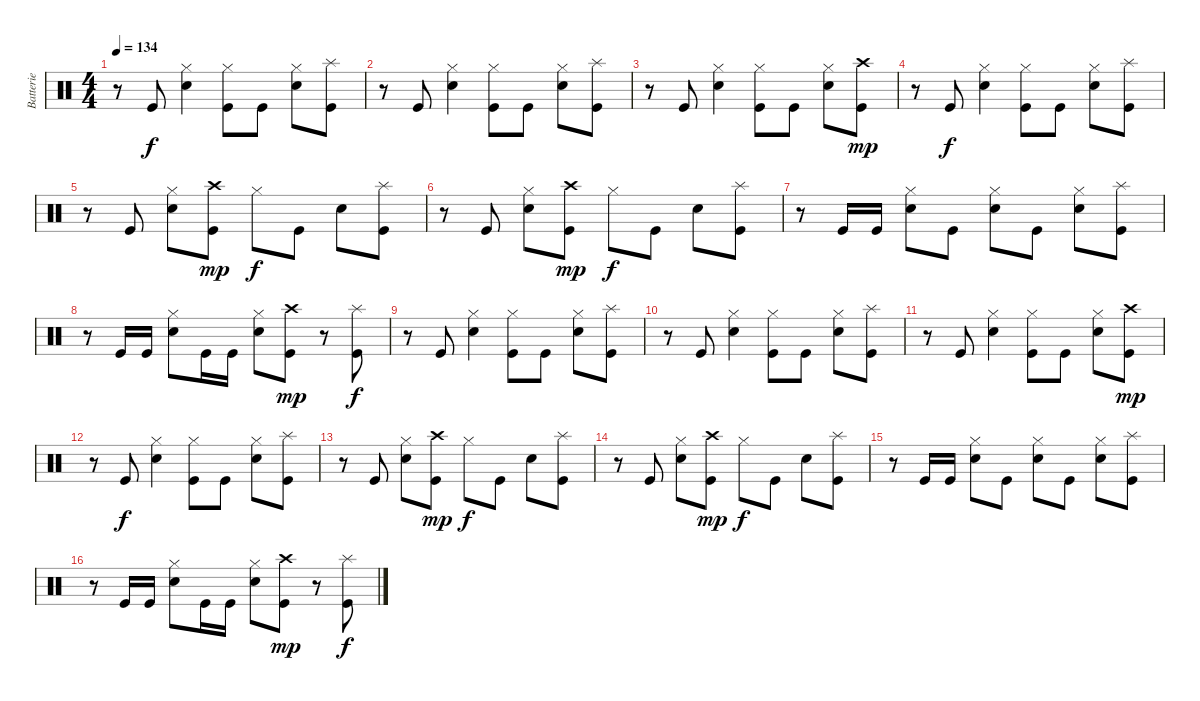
\track ("Batterie" "Batterie") {instrument percussion}
\staff {score}
\articulation defaults
\ts (4 4)
\tempo 134
\clef neutral
\ks c
r.8{dy f} "Kick (hit)".8 ("Hi-Hat (closed)" "Snare (hit) 2").4 ("Hi-Hat (closed)" "Kick (hit)").8 "Kick (hit)".8 ("Hi-Hat (closed)" "Snare (hit) 2").8 ("Splash (hit)" "Kick (hit)").8 |
r.8 "Kick (hit)".8 ("Hi-Hat (closed)" "Snare (hit) 2").4 ("Hi-Hat (closed)" "Kick (hit)").8 "Kick (hit)".8 ("Hi-Hat (closed)" "Snare (hit) 2").8 ("Splash (hit)" "Kick (hit)").8 |
r.8 "Kick (hit)".8 ("Hi-Hat (closed)" "Snare (hit) 2").4 ("Hi-Hat (closed)" "Kick (hit)").8 "Kick (hit)".8 ("Hi-Hat (closed)" "Snare (hit) 2").8 ("Crash high (hit)" "Kick (hit)").8{dy mp} |
r.8 "Kick (hit)".8{dy f} ("Hi-Hat (closed)" "Snare (hit) 2").4 ("Hi-Hat (closed)" "Kick (hit)").8 "Kick (hit)".8 ("Hi-Hat (closed)" "Snare (hit) 2").8 ("Splash (hit)" "Kick (hit)").8 |
r.8 "Kick (hit)".8 ("Hi-Hat (closed)" "Snare (hit) 2").8 ("Crash high (hit)" "Kick (hit)").8{dy mp} "Hi-Hat (closed)".8{dy f} "Kick (hit)".8 "Snare (hit) 2".8 ("Splash (hit)" "Kick (hit)").8 |
r.8 "Kick (hit)".8 ("Hi-Hat (closed)" "Snare (hit) 2").8 ("Crash high (hit)" "Kick (hit)").8{dy mp} "Hi-Hat (closed)".8{dy f} "Kick (hit)".8 "Snare (hit) 2".8 ("Splash (hit)" "Kick (hit)").8 |
r.8 "Kick (hit)".16 "Kick (hit)".16 ("Hi-Hat (closed)" "Snare (hit) 2").8 "Kick (hit)".8 ("Hi-Hat (closed)" "Snare (hit) 2").8 "Kick (hit)".8 ("Hi-Hat (closed)" "Snare (hit) 2").8 ("Splash (hit)" "Kick (hit)").8 |
r.8 "Kick (hit)".16 "Kick (hit)".16 ("Hi-Hat (closed)" "Snare (hit) 2").8 "Kick (hit)".16 "Kick (hit)".16 ("Hi-Hat (closed)" "Snare (hit) 2").8 ("Crash high (hit)" "Kick (hit)").8{dy mp} r.8 ("Splash (hit)" "Kick (hit)").8{dy f} |
r.8 "Kick (hit)".8 ("Hi-Hat (closed)" "Snare (hit) 2").4 ("Hi-Hat (closed)" "Kick (hit)").8 "Kick (hit)".8 ("Hi-Hat (closed)" "Snare (hit) 2").8 ("Splash (hit)" "Kick (hit)").8 |
r.8 "Kick (hit)".8 ("Hi-Hat (closed)" "Snare (hit) 2").4 ("Hi-Hat (closed)" "Kick (hit)").8 "Kick (hit)".8 ("Hi-Hat (closed)" "Snare (hit) 2").8 ("Splash (hit)" "Kick (hit)").8 |
r.8 "Kick (hit)".8 ("Hi-Hat (closed)" "Snare (hit) 2").4 ("Hi-Hat (closed)" "Kick (hit)").8 "Kick (hit)".8 ("Hi-Hat (closed)" "Snare (hit) 2").8 ("Crash high (hit)" "Kick (hit)").8{dy mp} |
r.8 "Kick (hit)".8{dy f} ("Hi-Hat (closed)" "Snare (hit) 2").4 ("Hi-Hat (closed)" "Kick (hit)").8 "Kick (hit)".8 ("Hi-Hat (closed)" "Snare (hit) 2").8 ("Splash (hit)" "Kick (hit)").8 |
r.8 "Kick (hit)".8 ("Hi-Hat (closed)" "Snare (hit) 2").8 ("Crash high (hit)" "Kick (hit)").8{dy mp} "Hi-Hat (closed)".8{dy f} "Kick (hit)".8 "Snare (hit) 2".8 ("Splash (hit)" "Kick (hit)").8 |
r.8 "Kick (hit)".8 ("Hi-Hat (closed)" "Snare (hit) 2").8 ("Crash high (hit)" "Kick (hit)").8{dy mp} "Hi-Hat (closed)".8{dy f} "Kick (hit)".8 "Snare (hit) 2".8 ("Splash (hit)" "Kick (hit)").8 |
r.8 "Kick (hit)".16 "Kick (hit)".16 ("Hi-Hat (closed)" "Snare (hit) 2").8 "Kick (hit)".8 ("Hi-Hat (closed)" "Snare (hit) 2").8 "Kick (hit)".8 ("Hi-Hat (closed)" "Snare (hit) 2").8 ("Splash (hit)" "Kick (hit)").8 |
r.8 "Kick (hit)".16 "Kick (hit)".16 ("Hi-Hat (closed)" "Snare (hit) 2").8 "Kick (hit)".16 "Kick (hit)".16 ("Hi-Hat (closed)" "Snare (hit) 2").8 ("Crash high (hit)" "Kick (hit)").8{dy mp} r.8 ("Splash (hit)" "Kick (hit)").8{dy f}
